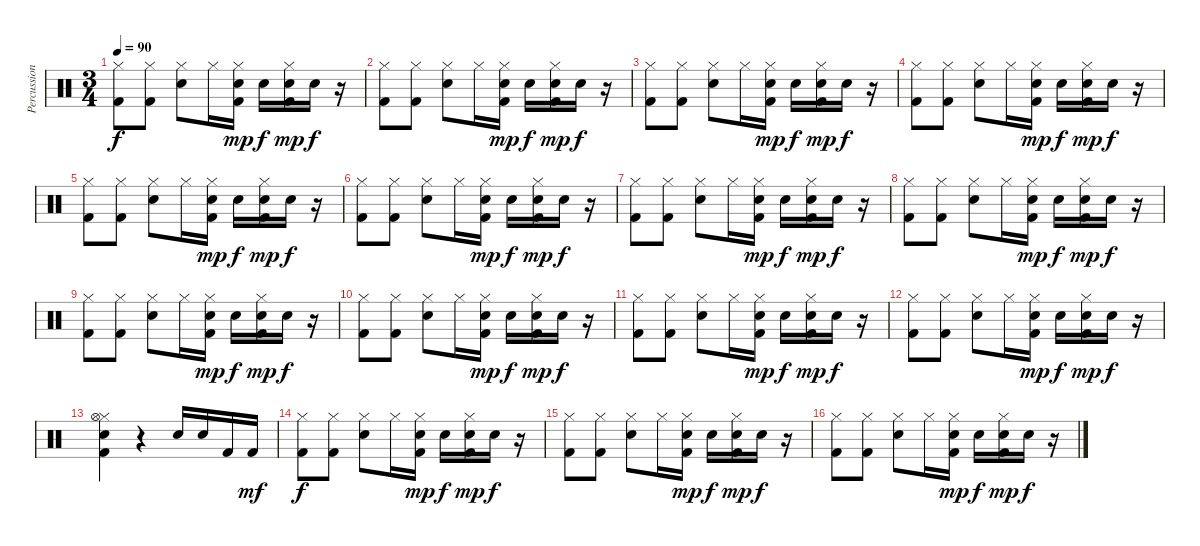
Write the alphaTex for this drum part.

\track ("Percussions" "Percussion") {instrument percussion}
\staff {score}
\articulation defaults
\ts (3 4)
\tempo 90
\clef neutral
\ks c
("Hi-Hat (closed)" "Kick (hit) 2").8{dy f} ("Hi-Hat (closed)" "Kick (hit) 2").8 ("Hi-Hat (closed)" "Electric Snare (hit)").8 "Hi-Hat (closed)".16 ("Hi-Hat (closed)" "Electric Snare (hit)" "Kick (hit) 2").16{dy mp} "Electric Snare (hit)".16{dy f} ("Hi-Hat (closed)" "Electric Snare (hit)" "Kick (hit) 2").16{dy mp} "Electric Snare (hit)".16{dy f} r.16 |
("Hi-Hat (closed)" "Kick (hit) 2").8 ("Hi-Hat (closed)" "Kick (hit) 2").8 ("Hi-Hat (closed)" "Electric Snare (hit)").8 "Hi-Hat (closed)".16 ("Hi-Hat (closed)" "Electric Snare (hit)" "Kick (hit) 2").16{dy mp} "Electric Snare (hit)".16{dy f} ("Hi-Hat (closed)" "Electric Snare (hit)" "Kick (hit) 2").16{dy mp} "Electric Snare (hit)".16{dy f} r.16 |
("Hi-Hat (closed)" "Kick (hit) 2").8 ("Hi-Hat (closed)" "Kick (hit) 2").8 ("Hi-Hat (closed)" "Electric Snare (hit)").8 "Hi-Hat (closed)".16 ("Hi-Hat (closed)" "Electric Snare (hit)" "Kick (hit) 2").16{dy mp} "Electric Snare (hit)".16{dy f} ("Hi-Hat (closed)" "Electric Snare (hit)" "Kick (hit) 2").16{dy mp} "Electric Snare (hit)".16{dy f} r.16 |
("Hi-Hat (closed)" "Kick (hit) 2").8 ("Hi-Hat (closed)" "Kick (hit) 2").8 ("Hi-Hat (closed)" "Electric Snare (hit)").8 "Hi-Hat (closed)".16 ("Hi-Hat (closed)" "Electric Snare (hit)" "Kick (hit) 2").16{dy mp} "Electric Snare (hit)".16{dy f} ("Hi-Hat (closed)" "Electric Snare (hit)" "Kick (hit) 2").16{dy mp} "Electric Snare (hit)".16{dy f} r.16 |
("Hi-Hat (closed)" "Kick (hit) 2").8 ("Hi-Hat (closed)" "Kick (hit) 2").8 ("Hi-Hat (closed)" "Electric Snare (hit)").8 "Hi-Hat (closed)".16 ("Hi-Hat (closed)" "Electric Snare (hit)" "Kick (hit) 2").16{dy mp} "Electric Snare (hit)".16{dy f} ("Hi-Hat (closed)" "Electric Snare (hit)" "Kick (hit) 2").16{dy mp} "Electric Snare (hit)".16{dy f} r.16 |
("Hi-Hat (closed)" "Kick (hit) 2").8 ("Hi-Hat (closed)" "Kick (hit) 2").8 ("Hi-Hat (closed)" "Electric Snare (hit)").8 "Hi-Hat (closed)".16 ("Hi-Hat (closed)" "Electric Snare (hit)" "Kick (hit) 2").16{dy mp} "Electric Snare (hit)".16{dy f} ("Hi-Hat (closed)" "Electric Snare (hit)" "Kick (hit) 2").16{dy mp} "Electric Snare (hit)".16{dy f} r.16 |
("Hi-Hat (closed)" "Kick (hit) 2").8 ("Hi-Hat (closed)" "Kick (hit) 2").8 ("Hi-Hat (closed)" "Electric Snare (hit)").8 "Hi-Hat (closed)".16 ("Hi-Hat (closed)" "Electric Snare (hit)" "Kick (hit) 2").16{dy mp} "Electric Snare (hit)".16{dy f} ("Hi-Hat (closed)" "Electric Snare (hit)" "Kick (hit) 2").16{dy mp} "Electric Snare (hit)".16{dy f} r.16 |
("Hi-Hat (closed)" "Kick (hit) 2").8 ("Hi-Hat (closed)" "Kick (hit) 2").8 ("Hi-Hat (closed)" "Electric Snare (hit)").8 "Hi-Hat (closed)".16 ("Hi-Hat (closed)" "Electric Snare (hit)" "Kick (hit) 2").16{dy mp} "Electric Snare (hit)".16{dy f} ("Hi-Hat (closed)" "Electric Snare (hit)" "Kick (hit) 2").16{dy mp} "Electric Snare (hit)".16{dy f} r.16 |
("Hi-Hat (closed)" "Kick (hit) 2").8 ("Hi-Hat (closed)" "Kick (hit) 2").8 ("Hi-Hat (closed)" "Electric Snare (hit)").8 "Hi-Hat (closed)".16 ("Hi-Hat (closed)" "Electric Snare (hit)" "Kick (hit) 2").16{dy mp} "Electric Snare (hit)".16{dy f} ("Hi-Hat (closed)" "Electric Snare (hit)" "Kick (hit) 2").16{dy mp} "Electric Snare (hit)".16{dy f} r.16 |
("Hi-Hat (closed)" "Kick (hit) 2").8 ("Hi-Hat (closed)" "Kick (hit) 2").8 ("Hi-Hat (closed)" "Electric Snare (hit)").8 "Hi-Hat (closed)".16 ("Hi-Hat (closed)" "Electric Snare (hit)" "Kick (hit) 2").16{dy mp} "Electric Snare (hit)".16{dy f} ("Hi-Hat (closed)" "Electric Snare (hit)" "Kick (hit) 2").16{dy mp} "Electric Snare (hit)".16{dy f} r.16 |
("Hi-Hat (closed)" "Kick (hit) 2").8 ("Hi-Hat (closed)" "Kick (hit) 2").8 ("Hi-Hat (closed)" "Electric Snare (hit)").8 "Hi-Hat (closed)".16 ("Hi-Hat (closed)" "Electric Snare (hit)" "Kick (hit) 2").16{dy mp} "Electric Snare (hit)".16{dy f} ("Hi-Hat (closed)" "Electric Snare (hit)" "Kick (hit) 2").16{dy mp} "Electric Snare (hit)".16{dy f} r.16 |
("Hi-Hat (closed)" "Kick (hit) 2").8 ("Hi-Hat (closed)" "Kick (hit) 2").8 ("Hi-Hat (closed)" "Electric Snare (hit)").8 "Hi-Hat (closed)".16 ("Hi-Hat (closed)" "Electric Snare (hit)" "Kick (hit) 2").16{dy mp} "Electric Snare (hit)".16{dy f} ("Hi-Hat (closed)" "Electric Snare (hit)" "Kick (hit) 2").16{dy mp} "Electric Snare (hit)".16{dy f} r.16 |
("Hi-Hat (closed)" "Hi-Hat (open)" "Electric Snare (hit)" "Kick (hit) 2").4 r.4 "Electric Snare (hit)".16 "Electric Snare (hit)".16 "Kick (hit) 2".16 "Kick (hit) 2".16{dy mf} |
("Hi-Hat (closed)" "Kick (hit) 2").8{dy f} ("Hi-Hat (closed)" "Kick (hit) 2").8 ("Hi-Hat (closed)" "Electric Snare (hit)").8 "Hi-Hat (closed)".16 ("Hi-Hat (closed)" "Electric Snare (hit)" "Kick (hit) 2").16{dy mp} "Electric Snare (hit)".16{dy f} ("Hi-Hat (closed)" "Electric Snare (hit)" "Kick (hit) 2").16{dy mp} "Electric Snare (hit)".16{dy f} r.16 |
("Hi-Hat (closed)" "Kick (hit) 2").8 ("Hi-Hat (closed)" "Kick (hit) 2").8 ("Hi-Hat (closed)" "Electric Snare (hit)").8 "Hi-Hat (closed)".16 ("Hi-Hat (closed)" "Electric Snare (hit)" "Kick (hit) 2").16{dy mp} "Electric Snare (hit)".16{dy f} ("Hi-Hat (closed)" "Electric Snare (hit)" "Kick (hit) 2").16{dy mp} "Electric Snare (hit)".16{dy f} r.16 |
("Hi-Hat (closed)" "Kick (hit) 2").8 ("Hi-Hat (closed)" "Kick (hit) 2").8 ("Hi-Hat (closed)" "Electric Snare (hit)").8 "Hi-Hat (closed)".16 ("Hi-Hat (closed)" "Electric Snare (hit)" "Kick (hit) 2").16{dy mp} "Electric Snare (hit)".16{dy f} ("Hi-Hat (closed)" "Electric Snare (hit)" "Kick (hit) 2").16{dy mp} "Electric Snare (hit)".16{dy f} r.16
